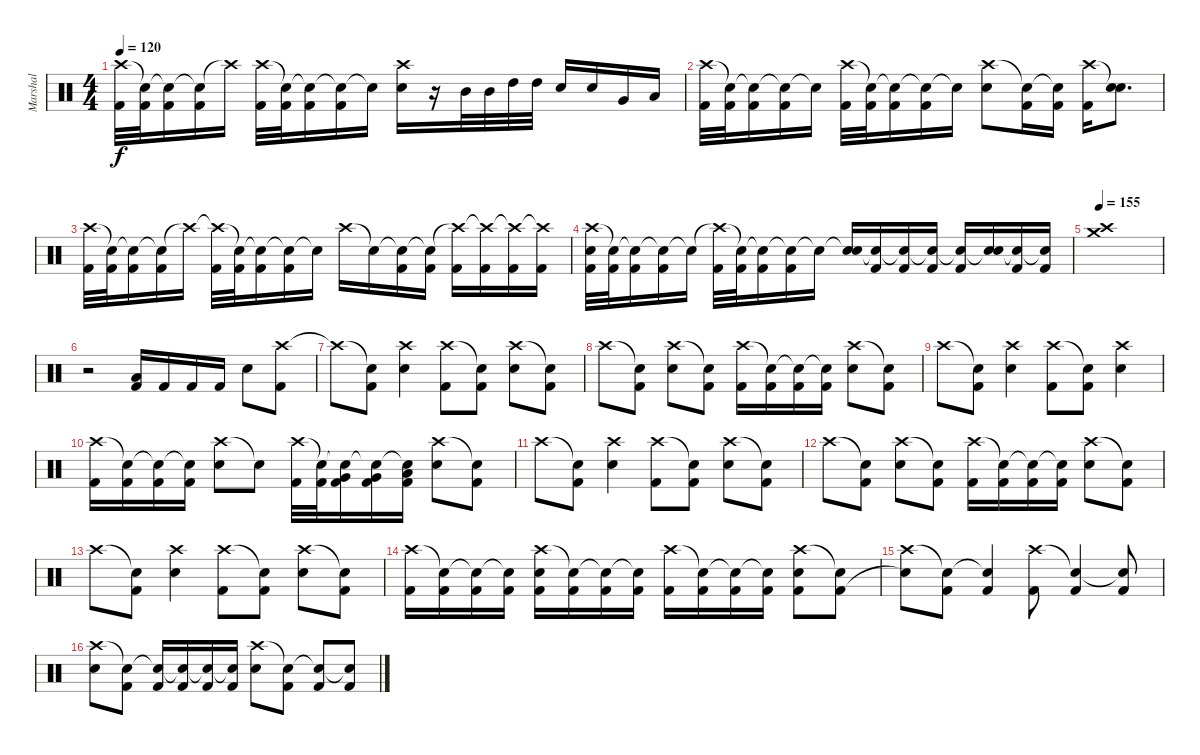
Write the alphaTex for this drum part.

\track ("Marshal" "Marshal") {instrument percussion}
\staff {score}
\articulation defaults
\ts (4 4)
\tempo 120
\clef neutral
\ks c
("Crash high (hit)" "Kick (hit) 2").32{dy f} ("Snare (hit)"{t} "Kick (hit) 2").32 ("Snare (hit)"{t} "Kick (hit) 2").16 ("Snare (hit)"{t} "Kick (hit) 2").16 "Crash high (hit)"{t}.16 ("Crash high (hit)" "Kick (hit) 2").32 ("Snare (hit)"{t} "Kick (hit) 2").32 ("Snare (hit)"{t} "Kick (hit) 2").16 ("Snare (hit)"{t} "Kick (hit) 2").16 "Snare (hit)"{t}.16 ("Crash high (hit)" "Electric Snare (hit)").16 r.16 "Mid Tom (hit)".32 "Mid Tom (hit)".32 "High Tom (hit)".32 "High Tom (hit)".32 "Electric Snare (hit)".16 "Electric Snare (hit)".16 "Very Low Tom (hit)".16 "Low Floor Tom (hit)".16 |
("Crash high (hit)" "Kick (hit) 2").32 ("Snare (hit)"{t} "Kick (hit) 2").32 ("Snare (hit)"{t} "Kick (hit) 2").16 ("Snare (hit)"{t} "Kick (hit) 2").16 "Snare (hit)"{t}.16 ("Crash high (hit)" "Kick (hit) 2").32 ("Snare (hit)"{t} "Kick (hit) 2").32 ("Snare (hit)"{t} "Kick (hit) 2").16 ("Snare (hit)"{t} "Kick (hit) 2").16 "Snare (hit)"{t}.16 ("Crash high (hit)" "Electric Snare (hit)").8 ("Snare (hit)"{t} "Kick (hit) 2").16 ("Snare (hit)"{t} "Kick (hit) 2").16 ("Crash high (hit)" "Kick (hit) 2").16 ("Snare (hit)"{t} "Electric Snare (hit)").8{d} |
("Crash high (hit)" "Kick (hit) 2").32 ("Snare (hit)"{t} "Kick (hit) 2").32 ("Snare (hit)"{t} "Kick (hit) 2").16 ("Snare (hit)"{t} "Kick (hit) 2").16 "Crash high (hit)"{t}.16 ("Crash high (hit)"{t} "Kick (hit) 2").32 ("Snare (hit)"{t} "Kick (hit) 2").32 ("Snare (hit)"{t} "Kick (hit) 2").16 ("Snare (hit)"{t} "Kick (hit) 2").16 "Snare (hit)"{t}.16 "Crash high (hit)".16 "Snare (hit)"{t}.16 ("Snare (hit)"{t} "Kick (hit) 2").16 ("Snare (hit)"{t} "Kick (hit) 2").16 ("Crash high (hit)"{t} "Kick (hit) 2").16 ("Crash high (hit)"{t} "Kick (hit) 2").16 ("Crash high (hit)"{t} "Kick (hit) 2").16 ("Crash high (hit)"{t} "Kick (hit) 2").16 |
("Crash high (hit)" "Electric Snare (hit)" "Kick (hit) 2").32 ("Snare (hit)"{t} "Kick (hit) 2").32 ("Snare (hit)"{t} "Kick (hit) 2").16 ("Snare (hit)"{t} "Kick (hit) 2").16 "Snare (hit)"{t}.16 ("Crash high (hit)"{t} "Kick (hit) 2").32 ("Snare (hit)"{t} "Kick (hit) 2").32 ("Snare (hit)"{t} "Kick (hit) 2").16 ("Snare (hit)"{t} "Kick (hit) 2").16 "Snare (hit)"{t}.16 ("Snare (hit)"{t} "Electric Snare (hit)").16 ("Snare (hit)"{t} "Kick (hit) 2").16 ("Snare (hit)"{t} "Kick (hit) 2").16 ("Snare (hit)"{t} "Kick (hit) 2").16 ("Snare (hit)"{t} "Kick (hit) 2").16 ("Snare (hit)"{t} "Electric Snare (hit)").16 ("Snare (hit)"{t} "Kick (hit) 2").16 ("Snare (hit)"{t} "Kick (hit) 2").16 |
\tempo 155
("Crash high (hit)" "Crash medium (hit)").1 |
r.2 ("Low Floor Tom (hit)" "Kick (hit) 2").16 "Kick (hit) 2".16 "Kick (hit) 2".16 "Kick (hit) 2".16 "Electric Snare (hit)".8 ("Crash high (hit)" "Kick (hit) 2").8 |
"Crash high (hit)"{t}.8 ("Snare (hit)"{t} "Kick (hit) 2").8 ("Crash high (hit)" "Electric Snare (hit)").4 ("Crash high (hit)" "Kick (hit) 2").8 ("Snare (hit)"{t} "Kick (hit) 2").8 ("Crash high (hit)" "Electric Snare (hit)").8 ("Snare (hit)"{t} "Kick (hit) 2").8 |
"Crash high (hit)".8 ("Snare (hit)"{t} "Kick (hit) 2").8 ("Crash high (hit)" "Electric Snare (hit)").8 ("Snare (hit)"{t} "Kick (hit) 2").8 ("Crash high (hit)" "Kick (hit) 2").16 ("Snare (hit)"{t} "Kick (hit) 2").16 ("Snare (hit)"{t} "Kick (hit) 2").16 ("Snare (hit)"{t} "Kick (hit) 2").16 ("Crash high (hit)" "Electric Snare (hit)").8 ("Snare (hit)"{t} "Kick (hit) 2").8 |
"Crash high (hit)".8 ("Snare (hit)"{t} "Kick (hit) 2").8 ("Crash high (hit)" "Electric Snare (hit)").4 ("Crash high (hit)" "Kick (hit) 2").8 ("Snare (hit)"{t} "Kick (hit) 2").8 ("Crash high (hit)" "Electric Snare (hit)").4 |
("Crash high (hit)" "Kick (hit) 2").16 ("Snare (hit)"{t} "Kick (hit) 2").16 ("Snare (hit)"{t} "Kick (hit) 2").16 ("Snare (hit)"{t} "Kick (hit) 2").16 ("Crash high (hit)" "Electric Snare (hit)").8 "Snare (hit)"{t}.8 ("Crash high (hit)" "Kick (hit) 2").32 ("Snare (hit)"{t} "Kick (hit) 2").32 ("Snare (hit)"{t} "Very Low Tom (hit)" "Kick (hit) 2").16 ("Snare (hit)"{t} "Very Low Tom (hit)" "Kick (hit) 2").16 ("Snare (hit)"{t} "Low Floor Tom (hit)" "Kick (hit) 2").16 ("Crash high (hit)" "Electric Snare (hit)").8 ("Snare (hit)"{t} "Kick (hit) 2").8 |
"Crash high (hit)".8 ("Snare (hit)"{t} "Kick (hit) 2").8 ("Crash high (hit)" "Electric Snare (hit)").4 ("Crash high (hit)" "Kick (hit) 2").8 ("Snare (hit)"{t} "Kick (hit) 2").8 ("Crash high (hit)" "Electric Snare (hit)").8 ("Snare (hit)"{t} "Kick (hit) 2").8 |
"Crash high (hit)".8 ("Snare (hit)"{t} "Kick (hit) 2").8 ("Crash high (hit)" "Electric Snare (hit)").8 ("Snare (hit)"{t} "Kick (hit) 2").8 ("Crash high (hit)" "Kick (hit) 2").16 ("Snare (hit)"{t} "Kick (hit) 2").16 ("Snare (hit)"{t} "Kick (hit) 2").16 ("Snare (hit)"{t} "Kick (hit) 2").16 ("Crash high (hit)" "Electric Snare (hit)").8 ("Snare (hit)"{t} "Kick (hit) 2").8 |
"Crash high (hit)".8 ("Snare (hit)"{t} "Kick (hit) 2").8 ("Crash high (hit)" "Electric Snare (hit)").4 ("Crash high (hit)" "Kick (hit) 2").8 ("Snare (hit)"{t} "Kick (hit) 2").8 ("Crash high (hit)" "Electric Snare (hit)").8 ("Snare (hit)"{t} "Kick (hit) 2").8 |
("Crash high (hit)" "Kick (hit) 2").16 ("Snare (hit)"{t} "Kick (hit) 2").16 ("Snare (hit)"{t} "Kick (hit) 2").16 ("Snare (hit)"{t} "Kick (hit) 2").16 ("Crash high (hit)" "Electric Snare (hit)" "Kick (hit) 2").16 ("Snare (hit)"{t} "Kick (hit) 2").16 ("Snare (hit)"{t} "Kick (hit) 2").16 ("Snare (hit)"{t} "Kick (hit) 2").16 ("Crash high (hit)" "Kick (hit) 2").16 ("Snare (hit)"{t} "Kick (hit) 2").16 ("Snare (hit)"{t} "Kick (hit) 2").16 ("Snare (hit)"{t} "Kick (hit) 2").16 ("Crash high (hit)" "Electric Snare (hit)" "Kick (hit) 2").8 ("Snare (hit)"{t} "Kick (hit) 2").8 |
("Crash high (hit)" "Snare (hit)"{t}).8 ("Snare (hit)"{t} "Kick (hit) 2").8 ("Snare (hit)"{t} "Kick (hit) 2").4 ("Crash high (hit)" "Kick (hit) 2").8 ("Snare (hit)"{t} "Kick (hit) 2").4 ("Snare (hit)"{t} "Kick (hit) 2").8 |
("Crash high (hit)" "Electric Snare (hit)").8 ("Snare (hit)"{t} "Kick (hit) 2").8 ("Snare (hit)"{t} "Kick (hit) 2").16 ("Snare (hit)"{t} "Kick (hit) 2").16 ("Snare (hit)"{t} "Kick (hit) 2").16 ("Snare (hit)"{t} "Kick (hit) 2").16 ("Crash high (hit)" "Electric Snare (hit)").8 ("Snare (hit)"{t} "Kick (hit) 2").8 ("Snare (hit)"{t} "Kick (hit) 2").8 ("Snare (hit)"{t} "Kick (hit) 2").8
